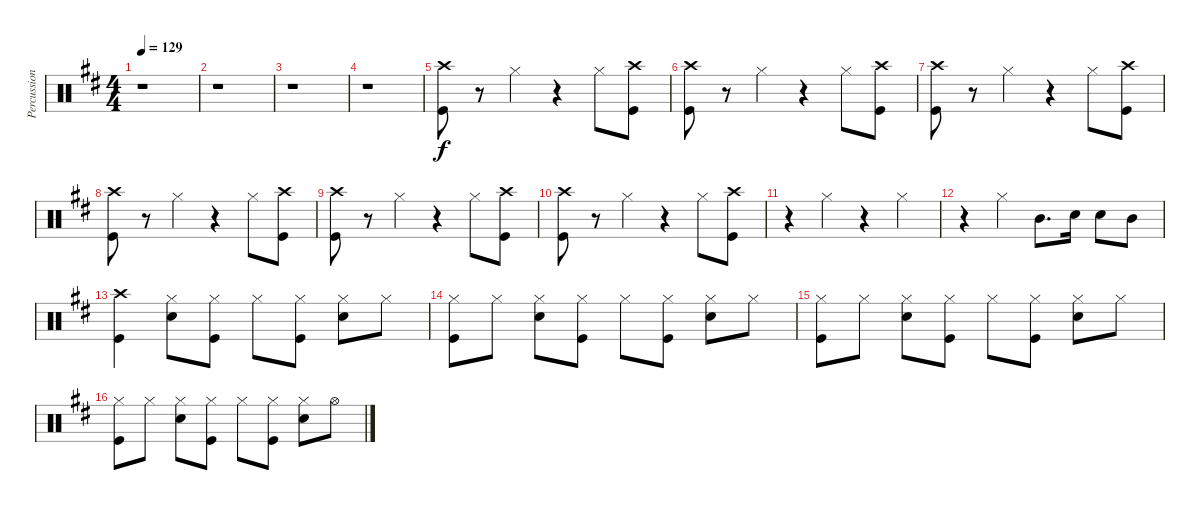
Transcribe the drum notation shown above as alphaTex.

\track ("Percussion" "Percussion") {instrument percussion}
\staff {score}
\articulation defaults
\ts (4 4)
\tempo 129
\clef neutral
\ks bminor
r.1{dy f} |
r.1 |
r.1 |
r.1 |
("Crash high (hit)" "Kick (hit)").8 r.8{volume 0} "Hi-Hat (closed)".4{volume 13} r.4 "Hi-Hat (closed)".8 ("Crash high (hit)" "Kick (hit)").8 |
("Crash high (hit)" "Kick (hit)").8 r.8{volume 0} "Hi-Hat (closed)".4{volume 13} r.4 "Hi-Hat (closed)".8 ("Crash high (hit)" "Kick (hit)").8 |
("Crash high (hit)" "Kick (hit)").8 r.8{volume 0} "Hi-Hat (closed)".4{volume 13} r.4 "Hi-Hat (closed)".8 ("Crash high (hit)" "Kick (hit)").8 |
("Crash high (hit)" "Kick (hit)").8 r.8{volume 0} "Hi-Hat (closed)".4{volume 13} r.4 "Hi-Hat (closed)".8 ("Crash high (hit)" "Kick (hit)").8 |
("Crash high (hit)" "Kick (hit)").8 r.8{volume 0} "Hi-Hat (closed)".4{volume 13} r.4 "Hi-Hat (closed)".8 ("Crash high (hit)" "Kick (hit)").8 |
("Crash high (hit)" "Kick (hit)").8 r.8{volume 0} "Hi-Hat (closed)".4{volume 13} r.4 "Hi-Hat (closed)".8 ("Crash high (hit)" "Kick (hit)").8 |
r.4 "Hi-Hat (closed)".4 r.4 "Hi-Hat (closed)".4 |
r.4 "Hi-Hat (closed)".4 "Mid Tom (hit)".8{d} "Snare (hit) 2".16 "Snare (hit) 2".8 "Mid Tom (hit)".8 |
("Crash high (hit)" "Kick (hit)").4 ("Hi-Hat (closed)" "Snare (hit) 2").8 ("Hi-Hat (closed)" "Kick (hit)").8 "Hi-Hat (closed)".8 ("Hi-Hat (closed)" "Kick (hit)").8 ("Hi-Hat (closed)" "Snare (hit) 2").8 "Hi-Hat (closed)".8 |
("Hi-Hat (closed)" "Kick (hit)").8 "Hi-Hat (closed)".8 ("Hi-Hat (closed)" "Snare (hit) 2").8 ("Hi-Hat (closed)" "Kick (hit)").8 "Hi-Hat (closed)".8 ("Hi-Hat (closed)" "Kick (hit)").8 ("Hi-Hat (closed)" "Snare (hit) 2").8 "Hi-Hat (closed)".8 |
("Hi-Hat (closed)" "Kick (hit)").8 "Hi-Hat (closed)".8 ("Hi-Hat (closed)" "Snare (hit) 2").8 ("Hi-Hat (closed)" "Kick (hit)").8 "Hi-Hat (closed)".8 ("Hi-Hat (closed)" "Kick (hit)").8 ("Hi-Hat (closed)" "Snare (hit) 2").8 "Hi-Hat (closed)".8 |
("Hi-Hat (closed)" "Kick (hit)").8 "Hi-Hat (closed)".8 ("Hi-Hat (closed)" "Snare (hit) 2").8 ("Hi-Hat (closed)" "Kick (hit)").8 "Hi-Hat (closed)".8 ("Hi-Hat (closed)" "Kick (hit)").8 ("Hi-Hat (closed)" "Snare (hit) 2").8 "Hi-Hat (open)".8
